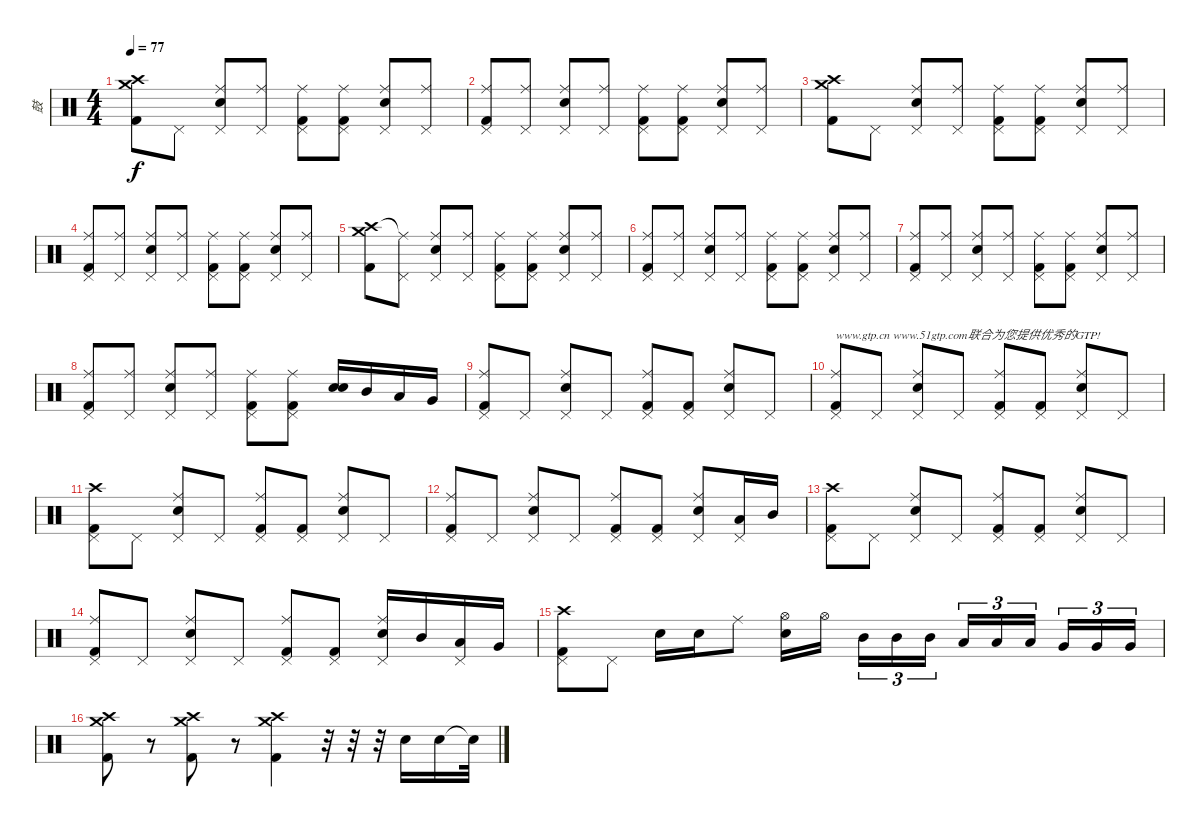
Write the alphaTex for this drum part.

\track ("鼓" "鼓") {instrument percussion}
\staff {score}
\articulation defaults
\ts (4 4)
\tempo 77
\clef neutral
\ks c
("Crash medium (hit)" "Crash high (hit)" "Kick (hit) 2").8{dy f} "Pedal Hi-Hat (hit)".8 ("Ride (middle)" "Pedal Hi-Hat (hit)" "Electric Snare (hit)").8 ("Ride (middle)" "Pedal Hi-Hat (hit)").8 ("Ride (middle)" "Pedal Hi-Hat (hit)" "Kick (hit) 2").8 ("Ride (middle)" "Pedal Hi-Hat (hit)" "Kick (hit) 2").8 ("Ride (middle)" "Pedal Hi-Hat (hit)" "Electric Snare (hit)").8 ("Ride (middle)" "Pedal Hi-Hat (hit)").8 |
("Ride (middle)" "Pedal Hi-Hat (hit)" "Kick (hit) 2").8 ("Ride (middle)" "Pedal Hi-Hat (hit)").8 ("Ride (middle)" "Pedal Hi-Hat (hit)" "Electric Snare (hit)").8 ("Ride (middle)" "Pedal Hi-Hat (hit)").8 ("Ride (middle)" "Pedal Hi-Hat (hit)" "Kick (hit) 2").8 ("Ride (middle)" "Pedal Hi-Hat (hit)" "Kick (hit) 2").8 ("Ride (middle)" "Pedal Hi-Hat (hit)" "Electric Snare (hit)").8 ("Ride (middle)" "Pedal Hi-Hat (hit)").8 |
("Crash high (hit)" "Crash medium (hit)" "Kick (hit) 2").8 "Pedal Hi-Hat (hit)".8 ("Ride (middle)" "Pedal Hi-Hat (hit)" "Electric Snare (hit)").8 ("Ride (middle)" "Pedal Hi-Hat (hit)").8 ("Ride (middle)" "Pedal Hi-Hat (hit)" "Kick (hit) 2").8 ("Ride (middle)" "Pedal Hi-Hat (hit)" "Kick (hit) 2").8 ("Ride (middle)" "Pedal Hi-Hat (hit)" "Electric Snare (hit)").8 ("Ride (middle)" "Pedal Hi-Hat (hit)").8 |
("Ride (middle)" "Pedal Hi-Hat (hit)" "Kick (hit) 2").8 ("Ride (middle)" "Pedal Hi-Hat (hit)").8 ("Ride (middle)" "Pedal Hi-Hat (hit)" "Electric Snare (hit)").8 ("Ride (middle)" "Pedal Hi-Hat (hit)").8 ("Ride (middle)" "Pedal Hi-Hat (hit)" "Kick (hit) 2").8 ("Ride (middle)" "Pedal Hi-Hat (hit)" "Kick (hit) 2").8 ("Ride (middle)" "Pedal Hi-Hat (hit)" "Electric Snare (hit)").8 ("Ride (middle)" "Pedal Hi-Hat (hit)").8 |
("Crash high (hit)" "Crash medium (hit)" "Kick (hit) 2").8 ("Ride (middle)"{t} "Pedal Hi-Hat (hit)").8 ("Ride (middle)" "Pedal Hi-Hat (hit)" "Electric Snare (hit)").8 ("Ride (middle)" "Pedal Hi-Hat (hit)").8 ("Ride (middle)" "Pedal Hi-Hat (hit)" "Kick (hit) 2").8 ("Ride (middle)" "Pedal Hi-Hat (hit)" "Kick (hit) 2").8 ("Ride (middle)" "Pedal Hi-Hat (hit)" "Electric Snare (hit)").8 ("Ride (middle)" "Pedal Hi-Hat (hit)").8 |
("Ride (middle)" "Pedal Hi-Hat (hit)" "Kick (hit) 2").8 ("Ride (middle)" "Pedal Hi-Hat (hit)").8 ("Ride (middle)" "Pedal Hi-Hat (hit)" "Electric Snare (hit)").8 ("Ride (middle)" "Pedal Hi-Hat (hit)").8 ("Ride (middle)" "Pedal Hi-Hat (hit)" "Kick (hit) 2").8 ("Ride (middle)" "Pedal Hi-Hat (hit)" "Kick (hit) 2").8 ("Ride (middle)" "Pedal Hi-Hat (hit)" "Electric Snare (hit)").8 ("Ride (middle)" "Pedal Hi-Hat (hit)").8 |
("Ride (middle)" "Pedal Hi-Hat (hit)" "Kick (hit) 2").8 ("Ride (middle)" "Pedal Hi-Hat (hit)").8 ("Ride (middle)" "Pedal Hi-Hat (hit)" "Electric Snare (hit)").8 ("Ride (middle)" "Pedal Hi-Hat (hit)").8 ("Ride (middle)" "Pedal Hi-Hat (hit)" "Kick (hit) 2").8 ("Ride (middle)" "Pedal Hi-Hat (hit)" "Kick (hit) 2").8 ("Ride (middle)" "Pedal Hi-Hat (hit)" "Electric Snare (hit)").8 ("Ride (middle)" "Pedal Hi-Hat (hit)").8 |
("Ride (middle)" "Pedal Hi-Hat (hit)" "Kick (hit) 2").8 ("Ride (middle)" "Pedal Hi-Hat (hit)").8 ("Ride (middle)" "Pedal Hi-Hat (hit)" "Electric Snare (hit)").8 ("Ride (middle)" "Pedal Hi-Hat (hit)").8 ("Ride (middle)" "Pedal Hi-Hat (hit)" "Kick (hit) 2").8 ("Ride (middle)" "Pedal Hi-Hat (hit)" "Kick (hit) 2").8 ("Electric Snare (hit)" "Electric Snare (hit)").16 "Mid Tom (hit)".16 "Low Tom (hit)".16 "Very Low Tom (hit)".16 |
("Ride (middle)" "Pedal Hi-Hat (hit)" "Kick (hit) 2").8 "Pedal Hi-Hat (hit)".8 ("Ride (middle)" "Pedal Hi-Hat (hit)" "Electric Snare (hit)").8 "Pedal Hi-Hat (hit)".8 ("Ride (middle)" "Pedal Hi-Hat (hit)" "Kick (hit) 2").8 ("Pedal Hi-Hat (hit)" "Kick (hit) 2").8 ("Ride (middle)" "Pedal Hi-Hat (hit)" "Electric Snare (hit)").8 "Pedal Hi-Hat (hit)".8 |
("Ride (middle)" "Pedal Hi-Hat (hit)" "Kick (hit) 2").8{txt "www.gtp.cn www.51gtp.com联合为您提供优秀的GTP!"} "Pedal Hi-Hat (hit)".8 ("Ride (middle)" "Pedal Hi-Hat (hit)" "Electric Snare (hit)").8 "Pedal Hi-Hat (hit)".8 ("Ride (middle)" "Pedal Hi-Hat (hit)" "Kick (hit) 2").8 ("Pedal Hi-Hat (hit)" "Kick (hit) 2").8 ("Ride (middle)" "Pedal Hi-Hat (hit)" "Electric Snare (hit)").8 "Pedal Hi-Hat (hit)".8 |
("Crash high (hit)" "Pedal Hi-Hat (hit)" "Kick (hit) 2").8 "Pedal Hi-Hat (hit)".8 ("Ride (middle)" "Pedal Hi-Hat (hit)" "Electric Snare (hit)").8 "Pedal Hi-Hat (hit)".8 ("Ride (middle)" "Pedal Hi-Hat (hit)" "Kick (hit) 2").8 ("Pedal Hi-Hat (hit)" "Kick (hit) 2").8 ("Ride (middle)" "Pedal Hi-Hat (hit)" "Electric Snare (hit)").8 "Pedal Hi-Hat (hit)".8 |
("Ride (middle)" "Pedal Hi-Hat (hit)" "Kick (hit) 2").8 "Pedal Hi-Hat (hit)".8 ("Ride (middle)" "Pedal Hi-Hat (hit)" "Electric Snare (hit)").8 "Pedal Hi-Hat (hit)".8 ("Ride (middle)" "Pedal Hi-Hat (hit)" "Kick (hit) 2").8 ("Pedal Hi-Hat (hit)" "Kick (hit) 2").8 ("Ride (middle)" "Pedal Hi-Hat (hit)" "Electric Snare (hit)").8 ("Pedal Hi-Hat (hit)" "Low Tom (hit)").16 "Mid Tom (hit)".16 |
("Crash high (hit)" "Pedal Hi-Hat (hit)" "Kick (hit) 2").8 "Pedal Hi-Hat (hit)".8 ("Ride (middle)" "Pedal Hi-Hat (hit)" "Electric Snare (hit)").8 "Pedal Hi-Hat (hit)".8 ("Ride (middle)" "Pedal Hi-Hat (hit)" "Kick (hit) 2").8 ("Pedal Hi-Hat (hit)" "Kick (hit) 2").8 ("Ride (middle)" "Pedal Hi-Hat (hit)" "Electric Snare (hit)").8 "Pedal Hi-Hat (hit)".8 |
("Ride (middle)" "Pedal Hi-Hat (hit)" "Kick (hit) 2").8 "Pedal Hi-Hat (hit)".8 ("Ride (middle)" "Pedal Hi-Hat (hit)" "Electric Snare (hit)").8 "Pedal Hi-Hat (hit)".8 ("Ride (middle)" "Pedal Hi-Hat (hit)" "Kick (hit) 2").8 ("Pedal Hi-Hat (hit)" "Kick (hit) 2").8 ("Ride (middle)" "Pedal Hi-Hat (hit)" "Electric Snare (hit)").16 "Mid Tom (hit)".16 ("Pedal Hi-Hat (hit)" "Low Tom (hit)").16 "Very Low Tom (hit)".16 |
("Crash high (hit)" "Pedal Hi-Hat (hit)" "Kick (hit) 2").8 "Pedal Hi-Hat (hit)".8 "Electric Snare (hit)".16 "Electric Snare (hit)".16 "Ride (middle)".8 ("Electric Snare (hit)" "Hi-Hat (open)").16 "Hi-Hat (open)".16{beam splitsecondary} "Mid Tom (hit)".16{tu (3 2)} "Mid Tom (hit)".16{tu (3 2)} "Mid Tom (hit)".16{tu (3 2)} "Low Tom (hit)".16{tu (3 2)} "Low Tom (hit)".16{tu (3 2)} "Low Tom (hit)".16{tu (3 2) beam splitsecondary} "Very Low Tom (hit)".16{tu (3 2)} "Very Low Tom (hit)".16{tu (3 2)} "Very Low Tom (hit)".16{tu (3 2)} |
("Crash high (hit)" "Crash medium (hit)" "Kick (hit) 2").8 r.8 ("Crash high (hit)" "Crash medium (hit)" "Kick (hit) 2").8 r.8 ("Crash high (hit)" "Crash medium (hit)" "Kick (hit) 2").4 r.32 r.32 r.32 "Electric Snare (hit)".16 "Electric Snare (hit)".16 "Snare (hit)"{t}.32
